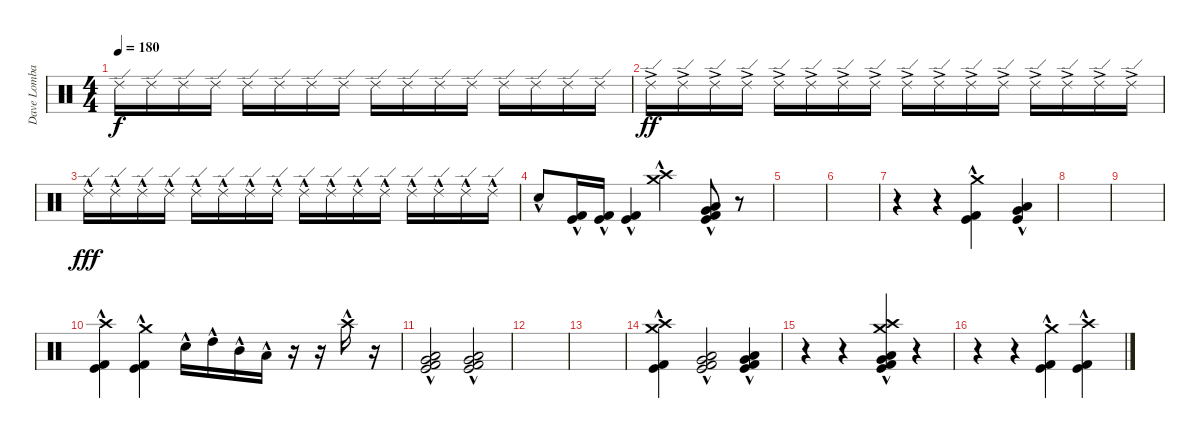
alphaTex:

\track ("Dave Lombardo:" "Dave Lomba") {instrument percussion}
\staff {score}
\articulation defaults
\ts (4 4)
\tempo 180
\clef neutral
\ks c "Ride (edge) 2".16{dy f} "Ride (edge) 2".16 "Ride (edge) 2".16 "Ride (edge) 2".16 "Ride (edge) 2".16 "Ride (edge) 2".16 "Ride (edge) 2".16 "Ride (edge) 2".16 "Ride (edge) 2".16 "Ride (edge) 2".16 "Ride (edge) 2".16 "Ride (edge) 2".16 "Ride (edge) 2".16 "Ride (edge) 2".16 "Ride (edge) 2".16 "Ride (edge) 2".16
|
"Ride (edge) 2"{ac}.16{dy ff} "Ride (edge) 2"{ac}.16 "Ride (edge) 2"{ac}.16 "Ride (edge) 2"{ac}.16 "Ride (edge) 2"{ac}.16 "Ride (edge) 2"{ac}.16 "Ride (edge) 2"{ac}.16 "Ride (edge) 2"{ac}.16 "Ride (edge) 2"{ac}.16 "Ride (edge) 2"{ac}.16 "Ride (edge) 2"{ac}.16 "Ride (edge) 2"{ac}.16 "Ride (edge) 2"{ac}.16 "Ride (edge) 2"{ac}.16 "Ride (edge) 2"{ac}.16 "Ride (edge) 2"{ac}.16 |
"Ride (edge) 2"{hac}.16{dy fff} "Ride (edge) 2"{hac}.16 "Ride (edge) 2"{hac}.16 "Ride (edge) 2"{hac}.16 "Ride (edge) 2"{hac}.16 "Ride (edge) 2"{hac}.16 "Ride (edge) 2"{hac}.16 "Ride (edge) 2"{hac}.16 "Ride (edge) 2"{hac}.16 "Ride (edge) 2"{hac}.16 "Ride (edge) 2"{hac}.16 "Ride (edge) 2"{hac}.16 "Ride (edge) 2"{hac}.16 "Ride (edge) 2"{hac}.16 "Ride (edge) 2"{hac}.16 "Ride (edge) 2"{hac}.16 |
"Snare (hit) 2"{hac}.8 ("Kick (hit) 2"{hac} "Kick (hit)"{hac}).16 ("Kick (hit) 2"{hac} "Kick (hit)"{hac}).16 ("Kick (hit) 2"{hac} "Kick (hit)"{hac}).4 ("Crash high (hit)"{hac} "Crash medium (hit)"{hac}).4 ("Kick (hit) 2"{hac} "Kick (hit)"{hac} "Low Floor Tom (hit)"{hac} "Very Low Tom (hit)"{hac}).8 r.8 |
|
|
r.4 r.4 ("Crash medium (hit)"{hac} "Kick (hit) 2"{hac} "Kick (hit)"{hac}).4 ("Kick (hit)"{hac} "Low Floor Tom (hit)"{hac} "Very Low Tom (hit)"{hac}).4 |
|
|
("Crash high (hit)"{hac} "Kick (hit) 2"{hac} "Kick (hit)"{hac}).4 ("Crash medium (hit)"{hac} "Kick (hit) 2"{hac} "Kick (hit)"{hac}).4 "Snare (hit) 2"{hac}.16 "High Tom (hit)"{hac}.16 "Mid Tom (hit)"{hac}.16 "Low Tom (hit)"{hac}.16 r.16 r.16 "Crash high (hit)"{hac}.16 r.16 |
("Kick (hit) 2"{hac} "Kick (hit)"{hac} "Very Low Tom (hit)"{hac} "Low Floor Tom (hit)"{hac}).2 ("Kick (hit) 2"{hac} "Kick (hit)"{hac} "Very Low Tom (hit)"{hac} "Low Floor Tom (hit)"{hac}).2 |
|
|
("Crash high (hit)"{hac} "Crash medium (hit)"{hac} "Kick (hit) 2"{hac} "Kick (hit)"{hac}).4 ("Kick (hit) 2"{hac} "Kick (hit)"{hac} "Very Low Tom (hit)"{hac} "Low Floor Tom (hit)"{hac}).2 ("Kick (hit) 2"{hac} "Kick (hit)"{hac} "Very Low Tom (hit)"{hac} "Low Floor Tom (hit)"{hac}).4 |
r.4 r.4 ("Crash medium (hit)"{hac} "Crash high (hit)"{hac} "Kick (hit) 2"{hac} "Kick (hit)"{hac} "Very Low Tom (hit)"{hac} "Low Floor Tom (hit)"{hac}).4 r.4 |
r.4 r.4 ("Crash medium (hit)"{hac} "Kick (hit) 2"{hac} "Kick (hit)"{hac}).4 ("Crash high (hit)"{hac} "Kick (hit) 2"{hac} "Kick (hit)"{hac}).4
